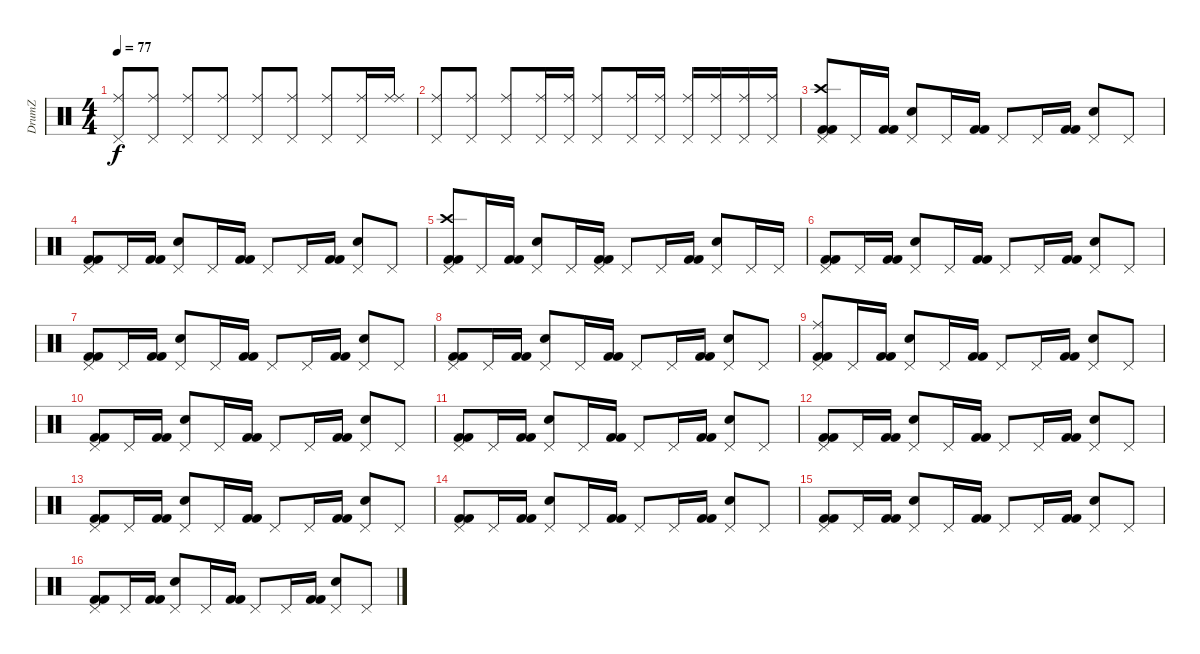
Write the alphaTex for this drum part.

\track ("DrumZ" "DrumZ") {instrument percussion}
\staff {score}
\articulation defaults
\ts (4 4)
\tempo 77
\clef neutral
\ks c
("Pedal Hi-Hat (hit)" "Ride (middle)").8{dy f} ("Pedal Hi-Hat (hit)" "Ride (middle)").8 ("Pedal Hi-Hat (hit)" "Ride (middle)").8 ("Pedal Hi-Hat (hit)" "Ride (middle)").8 ("Pedal Hi-Hat (hit)" "Ride (middle)").8 ("Pedal Hi-Hat (hit)" "Ride (middle)").8 ("Pedal Hi-Hat (hit)" "Ride (middle)").8 ("Pedal Hi-Hat (hit)" "Ride (middle)").16 ("Ride (middle)" "Ride (middle)").16 |
("Pedal Hi-Hat (hit)" "Ride (middle)").8 ("Pedal Hi-Hat (hit)" "Ride (middle)").8 ("Pedal Hi-Hat (hit)" "Ride (middle)").8 ("Pedal Hi-Hat (hit)" "Ride (middle)").16 ("Pedal Hi-Hat (hit)" "Ride (middle)").16 ("Pedal Hi-Hat (hit)" "Ride (middle)").8 ("Pedal Hi-Hat (hit)" "Ride (middle)").16 ("Pedal Hi-Hat (hit)" "Ride (middle)").16 ("Pedal Hi-Hat (hit)" "Ride (middle)").16 ("Pedal Hi-Hat (hit)" "Ride (middle)").16 ("Pedal Hi-Hat (hit)" "Ride (middle)").16 ("Pedal Hi-Hat (hit)" "Ride (middle)").16 |
("Pedal Hi-Hat (hit)" "Crash high (hit)" "Kick (hit) 2" "Kick (hit) 2").8 "Pedal Hi-Hat (hit)".16 ("Kick (hit) 2" "Kick (hit) 2").16 ("Pedal Hi-Hat (hit)" "Electric Snare (hit)").8 "Pedal Hi-Hat (hit)".16 ("Kick (hit) 2" "Kick (hit) 2").16 "Pedal Hi-Hat (hit)".8 "Pedal Hi-Hat (hit)".16 ("Kick (hit) 2" "Kick (hit) 2").16 ("Pedal Hi-Hat (hit)" "Electric Snare (hit)").8 "Pedal Hi-Hat (hit)".8 |
("Pedal Hi-Hat (hit)" "Kick (hit) 2" "Kick (hit) 2").8 "Pedal Hi-Hat (hit)".16 ("Kick (hit) 2" "Kick (hit) 2").16 ("Pedal Hi-Hat (hit)" "Electric Snare (hit)").8 "Pedal Hi-Hat (hit)".16 ("Kick (hit) 2" "Kick (hit) 2").16 "Pedal Hi-Hat (hit)".8 "Pedal Hi-Hat (hit)".16 ("Kick (hit) 2" "Kick (hit) 2").16 ("Pedal Hi-Hat (hit)" "Electric Snare (hit)").8 "Pedal Hi-Hat (hit)".8 |
("Pedal Hi-Hat (hit)" "Crash high (hit)" "Kick (hit) 2" "Kick (hit) 2").8 "Pedal Hi-Hat (hit)".16 ("Kick (hit) 2" "Kick (hit) 2").16 ("Pedal Hi-Hat (hit)" "Electric Snare (hit)").8 "Pedal Hi-Hat (hit)".16 ("Pedal Hi-Hat (hit)" "Kick (hit) 2" "Kick (hit) 2").16 "Pedal Hi-Hat (hit)".8 "Pedal Hi-Hat (hit)".16 ("Kick (hit) 2" "Kick (hit) 2").16 ("Pedal Hi-Hat (hit)" "Electric Snare (hit)").8 "Pedal Hi-Hat (hit)".16 "Pedal Hi-Hat (hit)".16 |
("Pedal Hi-Hat (hit)" "Kick (hit) 2" "Kick (hit) 2").8 "Pedal Hi-Hat (hit)".16 ("Kick (hit) 2" "Kick (hit) 2").16 ("Pedal Hi-Hat (hit)" "Electric Snare (hit)").8 "Pedal Hi-Hat (hit)".16 ("Kick (hit) 2" "Kick (hit) 2").16 "Pedal Hi-Hat (hit)".8 "Pedal Hi-Hat (hit)".16 ("Kick (hit) 2" "Kick (hit) 2").16 ("Pedal Hi-Hat (hit)" "Electric Snare (hit)").8 "Pedal Hi-Hat (hit)".8 |
("Pedal Hi-Hat (hit)" "Kick (hit) 2" "Kick (hit) 2").8 "Pedal Hi-Hat (hit)".16 ("Kick (hit) 2" "Kick (hit) 2").16 ("Pedal Hi-Hat (hit)" "Electric Snare (hit)").8 "Pedal Hi-Hat (hit)".16 ("Kick (hit) 2" "Kick (hit) 2").16 "Pedal Hi-Hat (hit)".8 "Pedal Hi-Hat (hit)".16 ("Kick (hit) 2" "Kick (hit) 2").16 ("Pedal Hi-Hat (hit)" "Electric Snare (hit)").8 "Pedal Hi-Hat (hit)".8 |
("Pedal Hi-Hat (hit)" "Kick (hit) 2" "Kick (hit) 2").8 "Pedal Hi-Hat (hit)".16 ("Kick (hit) 2" "Kick (hit) 2").16 ("Pedal Hi-Hat (hit)" "Electric Snare (hit)").8 "Pedal Hi-Hat (hit)".16 ("Kick (hit) 2" "Kick (hit) 2").16 "Pedal Hi-Hat (hit)".8 "Pedal Hi-Hat (hit)".16 ("Kick (hit) 2" "Kick (hit) 2").16 ("Pedal Hi-Hat (hit)" "Electric Snare (hit)").8 "Pedal Hi-Hat (hit)".8 |
("Pedal Hi-Hat (hit)" "Ride (middle)" "Kick (hit) 2" "Kick (hit) 2").8 "Pedal Hi-Hat (hit)".16 ("Kick (hit) 2" "Kick (hit) 2").16 ("Pedal Hi-Hat (hit)" "Electric Snare (hit)").8 "Pedal Hi-Hat (hit)".16 ("Kick (hit) 2" "Kick (hit) 2").16 "Pedal Hi-Hat (hit)".8 "Pedal Hi-Hat (hit)".16 ("Kick (hit) 2" "Kick (hit) 2").16 ("Pedal Hi-Hat (hit)" "Electric Snare (hit)").8 "Pedal Hi-Hat (hit)".8 |
("Pedal Hi-Hat (hit)" "Kick (hit) 2" "Kick (hit) 2").8 "Pedal Hi-Hat (hit)".16 ("Kick (hit) 2" "Kick (hit) 2").16 ("Pedal Hi-Hat (hit)" "Electric Snare (hit)").8 "Pedal Hi-Hat (hit)".16 ("Kick (hit) 2" "Kick (hit) 2").16 "Pedal Hi-Hat (hit)".8 "Pedal Hi-Hat (hit)".16 ("Kick (hit) 2" "Kick (hit) 2").16 ("Pedal Hi-Hat (hit)" "Electric Snare (hit)").8 "Pedal Hi-Hat (hit)".8 |
("Pedal Hi-Hat (hit)" "Kick (hit) 2" "Kick (hit) 2").8 "Pedal Hi-Hat (hit)".16 ("Kick (hit) 2" "Kick (hit) 2").16 ("Pedal Hi-Hat (hit)" "Electric Snare (hit)").8 "Pedal Hi-Hat (hit)".16 ("Kick (hit) 2" "Kick (hit) 2").16 "Pedal Hi-Hat (hit)".8 "Pedal Hi-Hat (hit)".16 ("Kick (hit) 2" "Kick (hit) 2").16 ("Pedal Hi-Hat (hit)" "Electric Snare (hit)").8 "Pedal Hi-Hat (hit)".8 |
("Pedal Hi-Hat (hit)" "Kick (hit) 2" "Kick (hit) 2").8 "Pedal Hi-Hat (hit)".16 ("Kick (hit) 2" "Kick (hit) 2").16 ("Pedal Hi-Hat (hit)" "Electric Snare (hit)").8 "Pedal Hi-Hat (hit)".16 ("Kick (hit) 2" "Kick (hit) 2").16 "Pedal Hi-Hat (hit)".8 "Pedal Hi-Hat (hit)".16 ("Kick (hit) 2" "Kick (hit) 2").16 ("Pedal Hi-Hat (hit)" "Electric Snare (hit)").8 "Pedal Hi-Hat (hit)".8 |
("Pedal Hi-Hat (hit)" "Kick (hit) 2" "Kick (hit) 2").8 "Pedal Hi-Hat (hit)".16 ("Kick (hit) 2" "Kick (hit) 2").16 ("Pedal Hi-Hat (hit)" "Electric Snare (hit)").8 "Pedal Hi-Hat (hit)".16 ("Kick (hit) 2" "Kick (hit) 2").16 "Pedal Hi-Hat (hit)".8 "Pedal Hi-Hat (hit)".16 ("Kick (hit) 2" "Kick (hit) 2").16 ("Pedal Hi-Hat (hit)" "Electric Snare (hit)").8 "Pedal Hi-Hat (hit)".8 |
("Pedal Hi-Hat (hit)" "Kick (hit) 2" "Kick (hit) 2").8 "Pedal Hi-Hat (hit)".16 ("Kick (hit) 2" "Kick (hit) 2").16 ("Pedal Hi-Hat (hit)" "Electric Snare (hit)").8 "Pedal Hi-Hat (hit)".16 ("Kick (hit) 2" "Kick (hit) 2").16 "Pedal Hi-Hat (hit)".8 "Pedal Hi-Hat (hit)".16 ("Kick (hit) 2" "Kick (hit) 2").16 ("Pedal Hi-Hat (hit)" "Electric Snare (hit)").8 "Pedal Hi-Hat (hit)".8 |
("Pedal Hi-Hat (hit)" "Kick (hit) 2" "Kick (hit) 2").8 "Pedal Hi-Hat (hit)".16 ("Kick (hit) 2" "Kick (hit) 2").16 ("Pedal Hi-Hat (hit)" "Electric Snare (hit)").8 "Pedal Hi-Hat (hit)".16 ("Kick (hit) 2" "Kick (hit) 2").16 "Pedal Hi-Hat (hit)".8 "Pedal Hi-Hat (hit)".16 ("Kick (hit) 2" "Kick (hit) 2").16 ("Pedal Hi-Hat (hit)" "Electric Snare (hit)").8 "Pedal Hi-Hat (hit)".8 |
("Pedal Hi-Hat (hit)" "Kick (hit) 2" "Kick (hit) 2").8 "Pedal Hi-Hat (hit)".16 ("Kick (hit) 2" "Kick (hit) 2").16 ("Pedal Hi-Hat (hit)" "Electric Snare (hit)").8 "Pedal Hi-Hat (hit)".16 ("Kick (hit) 2" "Kick (hit) 2").16 "Pedal Hi-Hat (hit)".8 "Pedal Hi-Hat (hit)".16 ("Kick (hit) 2" "Kick (hit) 2").16 ("Pedal Hi-Hat (hit)" "Electric Snare (hit)").8 "Pedal Hi-Hat (hit)".8
